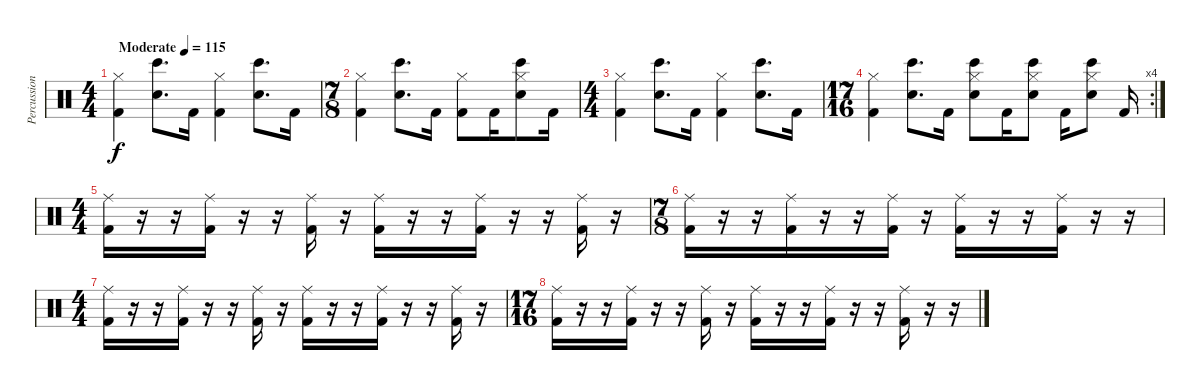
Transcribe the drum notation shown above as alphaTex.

\track ("Percussion" "Percussion") {instrument percussion}
\staff {score}
\articulation defaults
\ts (4 4)
\tempo (115 "Moderate")
\clef neutral
\ks c
("Hi-Hat (closed)" "Kick (hit) 2").4{dy f} ("Bongo High (hit)" "Electric Snare (hit)").8{d} "Kick (hit) 2".16 ("Hi-Hat (closed)" "Kick (hit) 2").4 ("Bongo High (hit)" "Electric Snare (hit)").8{d} "Kick (hit) 2".16 |
\ts (7 8)
("Hi-Hat (closed)" "Kick (hit) 2").4 ("Bongo High (hit)" "Electric Snare (hit)").8{d} "Kick (hit) 2".16 ("Hi-Hat (closed)" "Kick (hit) 2").8 "Kick (hit) 2".16 ("Hi-Hat (closed)" "Bongo High (hit)" "Electric Snare (hit)").8 "Kick (hit) 2".16 |
\ts (4 4)
("Hi-Hat (closed)" "Kick (hit) 2").4 ("Bongo High (hit)" "Electric Snare (hit)").8{d} "Kick (hit) 2".16 ("Hi-Hat (closed)" "Kick (hit) 2").4 ("Bongo High (hit)" "Electric Snare (hit)").8{d} "Kick (hit) 2".16 |
\rc 4
\ts (17 16)
("Hi-Hat (closed)" "Kick (hit) 2").4 ("Bongo High (hit)" "Electric Snare (hit)").8{d} "Kick (hit) 2".16 ("Hi-Hat (closed)" "Bongo High (hit)" "Electric Snare (hit)").8 "Kick (hit) 2".16 ("Hi-Hat (closed)" "Bongo High (hit)" "Electric Snare (hit)").8 "Kick (hit) 2".16 ("Hi-Hat (closed)" "Bongo High (hit)" "Electric Snare (hit)").8 "Kick (hit) 2".16 |
\ts (4 4)
("Ride (middle)" "Kick (hit) 2").16 r.16 r.16 ("Ride (middle)" "Kick (hit) 2").16 r.16 r.16 ("Ride (middle)" "Kick (hit) 2").16 r.16 ("Ride (middle)" "Kick (hit) 2").16 r.16 r.16 ("Ride (middle)" "Kick (hit) 2").16 r.16 r.16 ("Ride (middle)" "Kick (hit) 2").16 r.16 |
\ts (7 8)
("Ride (middle)" "Kick (hit) 2").16 r.16 r.16 ("Ride (middle)" "Kick (hit) 2").16 r.16 r.16 ("Ride (middle)" "Kick (hit) 2").16 r.16 ("Ride (middle)" "Kick (hit) 2").16 r.16 r.16 ("Ride (middle)" "Kick (hit) 2").16 r.16 r.16 |
\ts (4 4)
("Ride (middle)" "Kick (hit) 2").16 r.16 r.16 ("Ride (middle)" "Kick (hit) 2").16 r.16 r.16 ("Ride (middle)" "Kick (hit) 2").16 r.16 ("Ride (middle)" "Kick (hit) 2").16 r.16 r.16 ("Ride (middle)" "Kick (hit) 2").16 r.16 r.16 ("Ride (middle)" "Kick (hit) 2").16 r.16 |
\ts (17 16)
("Ride (middle)" "Kick (hit) 2").16 r.16 r.16 ("Ride (middle)" "Kick (hit) 2").16 r.16 r.16 ("Ride (middle)" "Kick (hit) 2").16 r.16 ("Ride (middle)" "Kick (hit) 2").16 r.16 r.16 ("Ride (middle)" "Kick (hit) 2").16 r.16 r.16 ("Ride (middle)" "Kick (hit) 2").16 r.16 r.16
